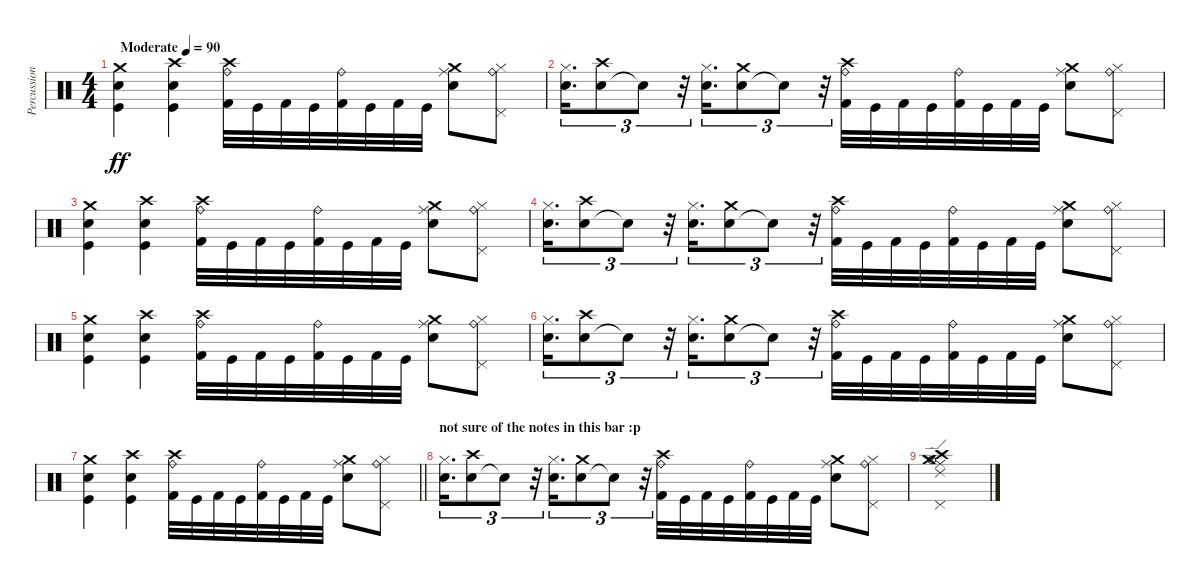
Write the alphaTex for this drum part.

\track ("Percussion 2" "Percussion") {instrument percussion}
\staff {score}
\articulation defaults
\ts (4 4)
\tempo (90 "Moderate")
\clef neutral
\ks c
("Kick (hit)" "Snare (hit) 2" "Crash medium (hit)").4{dy ff} ("Kick (hit)" "Snare (hit) 2" "Crash high (hit)").4 ("Kick (hit) 2" "Ride (bell)" "Crash high (hit)").32 "Kick (hit)".32 "Kick (hit) 2".32 "Kick (hit)".32 ("Kick (hit) 2" "Ride (bell)").32 "Kick (hit)".32 "Kick (hit) 2".32 "Kick (hit)".32 ("Snare (hit) 2" "Ride (middle)" "Crash medium (hit)").8 ("Ride (bell)" "Pedal Hi-Hat (hit)" "Hi-Hat (closed)").8 |
("Snare (hit) 2" "Hi-Hat (closed)").16{d tu (3 2)} ("Snare (hit) 2" "Crash high (hit)").8{tu (3 2)} "Snare (hit) 2"{t}.8{tu (3 2)} r.32{tu (3 2)} ("Snare (hit) 2" "Hi-Hat (closed)").16{d tu (3 2)} ("Snare (hit) 2" "Crash medium (hit)").8{tu (3 2)} "Snare (hit) 2"{t}.8{tu (3 2)} r.32{tu (3 2)} ("Kick (hit) 2" "Ride (bell)" "Crash high (hit)").32 "Kick (hit)".32 "Kick (hit) 2".32 "Kick (hit)".32 ("Kick (hit) 2" "Ride (bell)").32 "Kick (hit)".32 "Kick (hit) 2".32 "Kick (hit)".32 ("Snare (hit) 2" "Ride (middle)" "Crash medium (hit)").8 ("Ride (bell)" "Pedal Hi-Hat (hit)" "Hi-Hat (closed)").8 |
("Kick (hit)" "Snare (hit) 2" "Crash medium (hit)").4 ("Kick (hit)" "Snare (hit) 2" "Crash high (hit)").4 ("Kick (hit) 2" "Ride (bell)" "Crash high (hit)").32 "Kick (hit)".32 "Kick (hit) 2".32 "Kick (hit)".32 ("Kick (hit) 2" "Ride (bell)").32 "Kick (hit)".32 "Kick (hit) 2".32 "Kick (hit)".32 ("Snare (hit) 2" "Ride (middle)" "Crash medium (hit)").8 ("Ride (bell)" "Pedal Hi-Hat (hit)" "Hi-Hat (closed)").8 |
("Snare (hit) 2" "Hi-Hat (closed)").16{d tu (3 2)} ("Snare (hit) 2" "Crash high (hit)").8{tu (3 2)} "Snare (hit) 2"{t}.8{tu (3 2)} r.32{tu (3 2)} ("Snare (hit) 2" "Hi-Hat (closed)").16{d tu (3 2)} ("Snare (hit) 2" "Crash medium (hit)").8{tu (3 2)} "Snare (hit) 2"{t}.8{tu (3 2)} r.32{tu (3 2)} ("Kick (hit) 2" "Ride (bell)" "Crash high (hit)").32 "Kick (hit)".32 "Kick (hit) 2".32 "Kick (hit)".32 ("Kick (hit) 2" "Ride (bell)").32 "Kick (hit)".32 "Kick (hit) 2".32 "Kick (hit)".32 ("Snare (hit) 2" "Ride (middle)" "Crash medium (hit)").8 ("Ride (bell)" "Pedal Hi-Hat (hit)" "Hi-Hat (closed)").8 |
("Kick (hit)" "Snare (hit) 2" "Crash medium (hit)").4 ("Kick (hit)" "Snare (hit) 2" "Crash high (hit)").4 ("Kick (hit) 2" "Ride (bell)" "Crash high (hit)").32 "Kick (hit)".32 "Kick (hit) 2".32 "Kick (hit)".32 ("Kick (hit) 2" "Ride (bell)").32 "Kick (hit)".32 "Kick (hit) 2".32 "Kick (hit)".32 ("Snare (hit) 2" "Ride (middle)" "Crash medium (hit)").8 ("Ride (bell)" "Pedal Hi-Hat (hit)" "Hi-Hat (closed)").8 |
("Snare (hit) 2" "Hi-Hat (closed)").16{d tu (3 2)} ("Snare (hit) 2" "Crash high (hit)").8{tu (3 2)} "Snare (hit) 2"{t}.8{tu (3 2)} r.32{tu (3 2)} ("Snare (hit) 2" "Hi-Hat (closed)").16{d tu (3 2)} ("Snare (hit) 2" "Crash medium (hit)").8{tu (3 2)} "Snare (hit) 2"{t}.8{tu (3 2)} r.32{tu (3 2)} ("Kick (hit) 2" "Ride (bell)" "Crash high (hit)").32 "Kick (hit)".32 "Kick (hit) 2".32 "Kick (hit)".32 ("Kick (hit) 2" "Ride (bell)").32 "Kick (hit)".32 "Kick (hit) 2".32 "Kick (hit)".32 ("Snare (hit) 2" "Ride (middle)" "Crash medium (hit)").8 ("Ride (bell)" "Pedal Hi-Hat (hit)" "Hi-Hat (closed)").8 |
\barLineRight lightlight
("Kick (hit)" "Snare (hit) 2" "Crash medium (hit)").4 ("Kick (hit)" "Snare (hit) 2" "Crash high (hit)").4 ("Kick (hit) 2" "Ride (bell)" "Crash high (hit)").32 "Kick (hit)".32 "Kick (hit) 2".32 "Kick (hit)".32 ("Kick (hit) 2" "Ride (bell)").32 "Kick (hit)".32 "Kick (hit) 2".32 "Kick (hit)".32 ("Snare (hit) 2" "Ride (middle)" "Crash medium (hit)").8 ("Ride (bell)" "Pedal Hi-Hat (hit)" "Hi-Hat (closed)").8 |
\section ("" "not sure of the notes in this bar :p")
("Snare (hit) 2" "Hi-Hat (closed)").16{d tu (3 2)} ("Snare (hit) 2" "Crash high (hit)").8{tu (3 2)} "Snare (hit) 2"{t}.8{tu (3 2)} r.32{tu (3 2)} ("Snare (hit) 2" "Hi-Hat (closed)").16{d tu (3 2)} ("Snare (hit) 2" "Crash medium (hit)").8{tu (3 2)} "Snare (hit) 2"{t}.8{tu (3 2)} r.32{tu (3 2)} ("Kick (hit) 2" "Ride (bell)" "Crash high (hit)").32 "Kick (hit)".32 "Kick (hit) 2".32 "Kick (hit)".32 ("Kick (hit) 2" "Ride (bell)").32 "Kick (hit)".32 "Kick (hit) 2".32 "Kick (hit)".32 ("Snare (hit) 2" "Ride (middle)" "Crash medium (hit)").8 ("Ride (bell)" "Pedal Hi-Hat (hit)" "Hi-Hat (closed)").8 |
("Crash high (hit)" "Crash medium (hit)" "Ride (middle)" "Ride (edge) 2" "Pedal Hi-Hat (hit)" "Hi-Hat (open)").1
